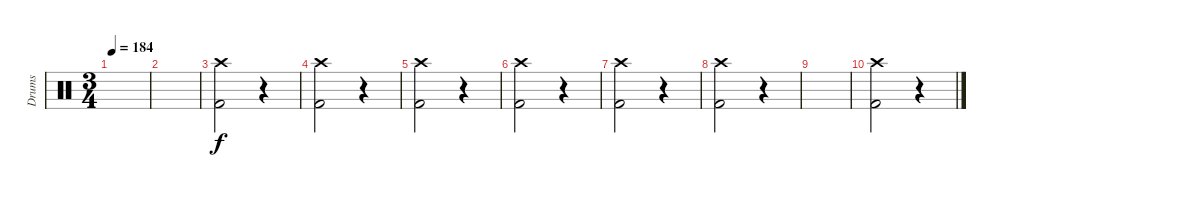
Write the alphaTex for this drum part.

\track ("Drums" "Drums") {instrument percussion}
\staff {score}
\articulation defaults
\ts (3 4)
\tempo 184
\clef neutral
\ks c
|
|
("Crash high (hit)" "Kick (hit) 2").2 r.4 |
("Crash high (hit)" "Kick (hit) 2").2 r.4 |
("Crash high (hit)" "Kick (hit) 2").2 r.4 |
("Crash high (hit)" "Kick (hit) 2").2 r.4 |
("Crash high (hit)" "Kick (hit) 2").2 r.4 |
("Crash high (hit)" "Kick (hit) 2").2 r.4 |
|
("Crash high (hit)" "Kick (hit) 2").2 r.4
